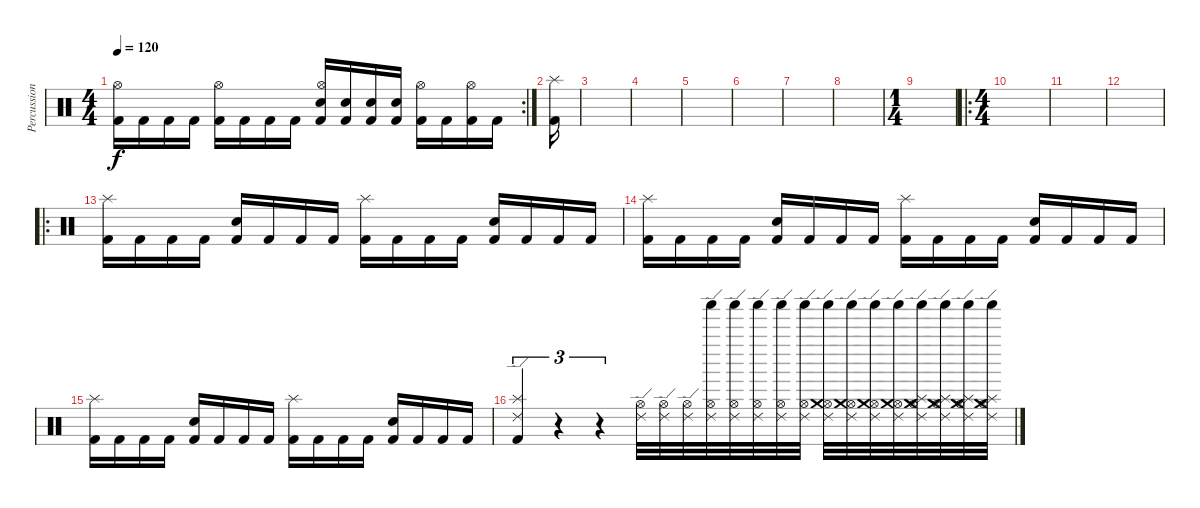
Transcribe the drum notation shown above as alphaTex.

\track ("Percussion" "Percussion") {instrument percussion}
\staff {score}
\articulation defaults
\rc 2
\ts (4 4)
\tempo 120
\clef neutral
\ks c
("Kick (hit) 2" "Hi-Hat (open)").16{dy f} "Kick (hit) 2".16 "Kick (hit) 2".16 "Kick (hit) 2".16 ("Kick (hit) 2" "Hi-Hat (open)").16 "Kick (hit) 2".16 "Kick (hit) 2".16 "Kick (hit) 2".16 ("Kick (hit) 2" "Snare (hit) 2" "Hi-Hat (open)").16 ("Kick (hit) 2" "Snare (hit) 2").16 ("Kick (hit) 2" "Snare (hit) 2").16 ("Kick (hit) 2" "Snare (hit) 2").16 ("Kick (hit) 2" "Hi-Hat (open)").16 "Kick (hit) 2".16 ("Kick (hit) 2" "Hi-Hat (open)").16 "Kick (hit) 2".16 |
("Kick (hit) 2" "Splash (hit)").16 |
|
|
|
|
|
|
\ts (1 4)
|
\ro
\ts (4 4)
|
|
|
\ro
("Kick (hit) 2" "Splash (hit)").16 "Kick (hit) 2".16 "Kick (hit) 2".16 "Kick (hit) 2".16 ("Kick (hit) 2" "Snare (hit) 2").16 "Kick (hit) 2".16 "Kick (hit) 2".16 "Kick (hit) 2".16 ("Kick (hit) 2" "Splash (hit)").16 "Kick (hit) 2".16 "Kick (hit) 2".16 "Kick (hit) 2".16 ("Kick (hit) 2" "Snare (hit) 2").16 "Kick (hit) 2".16 "Kick (hit) 2".16 "Kick (hit) 2".16 |
("Kick (hit) 2" "Splash (hit)").16 "Kick (hit) 2".16 "Kick (hit) 2".16 "Kick (hit) 2".16 ("Kick (hit) 2" "Snare (hit) 2").16 "Kick (hit) 2".16 "Kick (hit) 2".16 "Kick (hit) 2".16 ("Kick (hit) 2" "Splash (hit)").16 "Kick (hit) 2".16 "Kick (hit) 2".16 "Kick (hit) 2".16 ("Kick (hit) 2" "Snare (hit) 2").16 "Kick (hit) 2".16 "Kick (hit) 2".16 "Kick (hit) 2".16 |
("Kick (hit) 2" "Splash (hit)").16 "Kick (hit) 2".16 "Kick (hit) 2".16 "Kick (hit) 2".16 ("Kick (hit) 2" "Snare (hit) 2").16 "Kick (hit) 2".16 "Kick (hit) 2".16 "Kick (hit) 2".16 ("Kick (hit) 2" "Splash (hit)").16 "Kick (hit) 2".16 "Kick (hit) 2".16 "Kick (hit) 2".16 ("Kick (hit) 2" "Snare (hit) 2").16 "Kick (hit) 2".16 "Kick (hit) 2".16 "Kick (hit) 2".16 |
("Ride (edge) 2" "Splash (hit)" "Kick (hit) 2").4{tu (3 2)} r.4{tu (3 2)} r.4{tu (3 2)} ("Hi-Hat (open)" "Ride (edge) 2").32 ("Hi-Hat (open)" "Ride (edge) 2").32 ("Hi-Hat (open)" "Ride (edge) 2").32 ("Shaker (hit)" "Hi-Hat (open)" "Ride (edge) 2").32 ("Shaker (hit)" "Hi-Hat (open)" "Ride (edge) 2").32 ("Shaker (hit)" "Hi-Hat (open)" "Ride (edge) 2").32 ("Shaker (hit)" "Hi-Hat (open)" "Ride (edge) 2").32 ("Shaker (hit)" "Hi-Hat (open)" "Ride (edge) 2").32 ("Shaker (hit)" "Hi-Hat (open)" "Ride (edge) 2" "Crash medium (hit)").32 ("Shaker (hit)" "Hi-Hat (open)" "Ride (edge) 2" "Crash medium (hit)").32 ("Shaker (hit)" "Hi-Hat (open)" "Ride (edge) 2" "Crash medium (hit)").32 ("Shaker (hit)" "Hi-Hat (open)" "Ride (edge) 2" "Crash medium (hit)").32 ("Shaker (hit)" "Hi-Hat (open)" "Ride (edge) 2" "Crash medium (hit)" "Splash (hit)").32 ("Shaker (hit)" "Hi-Hat (open)" "Ride (edge) 2" "Crash medium (hit)" "Splash (hit)").32 ("Shaker (hit)" "Hi-Hat (open)" "Ride (edge) 2" "Crash medium (hit)" "Splash (hit)").32 ("Shaker (hit)" "Hi-Hat (open)" "Ride (edge) 2" "Crash medium (hit)" "Splash (hit)").32
